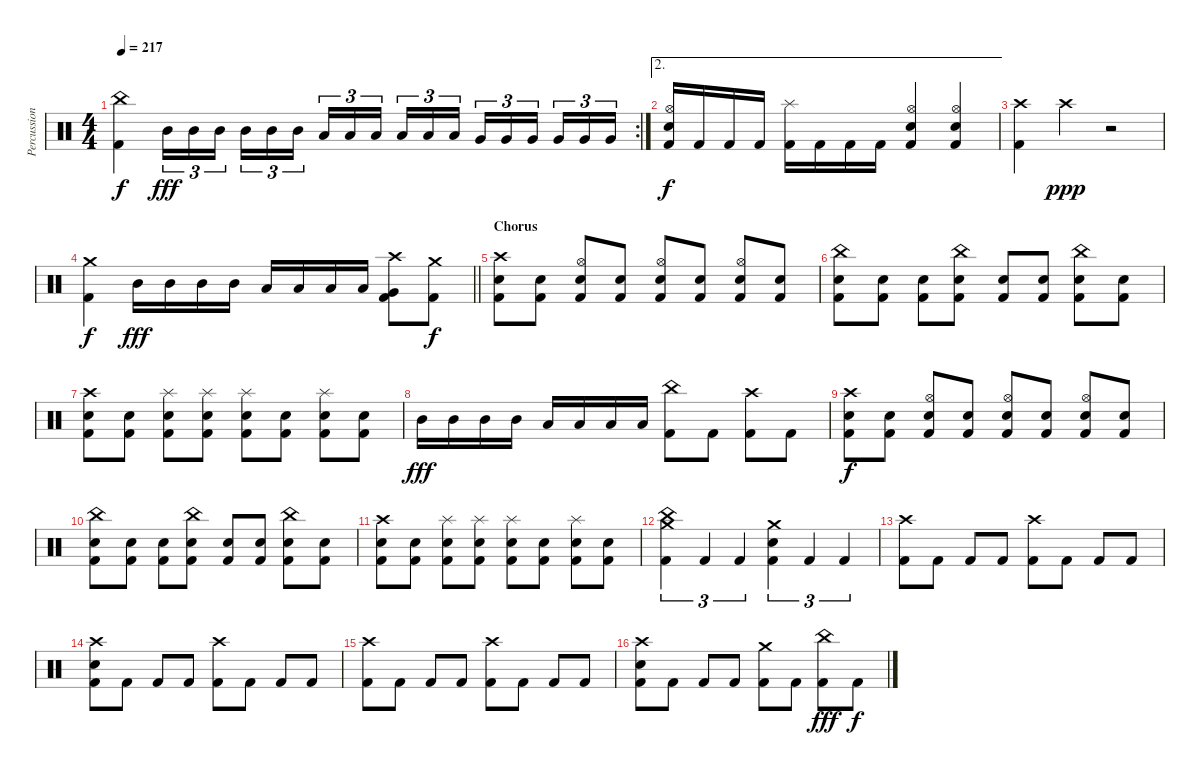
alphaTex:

\track ("Percussion" "Percussion") {instrument percussion}
\staff {score}
\articulation defaults
\rc 2
\ts (4 4)
\tempo 217
\clef neutral
\ks c
("China (hit)" "Kick (hit) 2").4{dy f} "Mid Tom (hit)".16{tu (3 2) dy fff} "Mid Tom (hit)".16{tu (3 2)} "Mid Tom (hit)".16{tu (3 2)} "Mid Tom (hit)".16{tu (3 2)} "Mid Tom (hit)".16{tu (3 2)} "Mid Tom (hit)".16{tu (3 2)} "Low Tom (hit)".16{tu (3 2)} "Low Tom (hit)".16{tu (3 2)} "Low Tom (hit)".16{tu (3 2)} "Low Tom (hit)".16{tu (3 2)} "Low Tom (hit)".16{tu (3 2)} "Low Tom (hit)".16{tu (3 2)} "Very Low Tom (hit)".16{tu (3 2)} "Very Low Tom (hit)".16{tu (3 2)} "Very Low Tom (hit)".16{tu (3 2)} "Very Low Tom (hit)".16{tu (3 2)} "Very Low Tom (hit)".16{tu (3 2)} "Very Low Tom (hit)".16{tu (3 2)} |
\ae 2
("Hi-Hat (open)" "Electric Snare (hit)" "Kick (hit) 2").16{dy f} "Kick (hit) 2".16 "Kick (hit) 2".16 "Kick (hit) 2".16 ("Splash (hit)" "Kick (hit) 2").16 "Kick (hit) 2".16 "Kick (hit) 2".16 "Kick (hit) 2".16 ("Hi-Hat (open)" "Electric Snare (hit)" "Kick (hit) 2").4 ("Hi-Hat (open)" "Electric Snare (hit)" "Kick (hit) 2").4 |
("Crash high (hit)" "Kick (hit) 2").4 "Crash high (hit)".4{dy ppp} r.2 |
\barLineRight lightlight
("Crash medium (hit)" "Kick (hit) 2").4{dy f} "Mid Tom (hit)".16{dy fff} "Mid Tom (hit)".16 "Mid Tom (hit)".16 "Mid Tom (hit)".16 "Low Tom (hit)".16 "Low Tom (hit)".16 "Low Tom (hit)".16 "Low Tom (hit)".16 ("Crash high (hit)" "Very Low Tom (hit)" "Kick (hit) 2").8 ("Crash medium (hit)" "Kick (hit) 2").8{dy f} |
\section ("" "Chorus")
("Crash high (hit)" "Electric Snare (hit)" "Kick (hit) 2").8 ("Electric Snare (hit)" "Kick (hit) 2").8 ("Hi-Hat (open)" "Electric Snare (hit)" "Kick (hit) 2").8 ("Electric Snare (hit)" "Kick (hit) 2").8 ("Hi-Hat (open)" "Electric Snare (hit)" "Kick (hit) 2").8 ("Electric Snare (hit)" "Kick (hit) 2").8 ("Hi-Hat (open)" "Electric Snare (hit)" "Kick (hit) 2").8 ("Electric Snare (hit)" "Kick (hit) 2").8 |
("China (hit)" "Electric Snare (hit)" "Kick (hit) 2").8 ("Electric Snare (hit)" "Kick (hit) 2").8 ("Electric Snare (hit)" "Kick (hit) 2").8 ("China (hit)" "Electric Snare (hit)" "Kick (hit) 2").8 ("Electric Snare (hit)" "Kick (hit) 2").8 ("Electric Snare (hit)" "Kick (hit) 2").8 ("China (hit)" "Electric Snare (hit)" "Kick (hit) 2").8 ("Electric Snare (hit)" "Kick (hit) 2").8 |
("Crash high (hit)" "Electric Snare (hit)" "Kick (hit) 2").8 ("Electric Snare (hit)" "Kick (hit) 2").8 ("Splash (hit)" "Electric Snare (hit)" "Kick (hit) 2").8 ("Splash (hit)" "Electric Snare (hit)" "Kick (hit) 2").8 ("Splash (hit)" "Electric Snare (hit)" "Kick (hit) 2").8 ("Electric Snare (hit)" "Kick (hit) 2").8 ("Splash (hit)" "Electric Snare (hit)" "Kick (hit) 2").8 ("Electric Snare (hit)" "Kick (hit) 2").8 |
"Mid Tom (hit)".16{dy fff} "Mid Tom (hit)".16 "Mid Tom (hit)".16 "Mid Tom (hit)".16 "Low Tom (hit)".16 "Low Tom (hit)".16 "Low Tom (hit)".16 "Low Tom (hit)".16 ("China (hit)" "Kick (hit) 2").8 "Kick (hit) 2".8 ("Crash high (hit)" "Kick (hit) 2").8 "Kick (hit) 2".8 |
("Crash high (hit)" "Electric Snare (hit)" "Kick (hit) 2").8{dy f} ("Electric Snare (hit)" "Kick (hit) 2").8 ("Hi-Hat (open)" "Electric Snare (hit)" "Kick (hit) 2").8 ("Electric Snare (hit)" "Kick (hit) 2").8 ("Hi-Hat (open)" "Electric Snare (hit)" "Kick (hit) 2").8 ("Electric Snare (hit)" "Kick (hit) 2").8 ("Hi-Hat (open)" "Electric Snare (hit)" "Kick (hit) 2").8 ("Electric Snare (hit)" "Kick (hit) 2").8 |
("China (hit)" "Electric Snare (hit)" "Kick (hit) 2").8 ("Electric Snare (hit)" "Kick (hit) 2").8 ("Electric Snare (hit)" "Kick (hit) 2").8 ("China (hit)" "Electric Snare (hit)" "Kick (hit) 2").8 ("Electric Snare (hit)" "Kick (hit) 2").8 ("Electric Snare (hit)" "Kick (hit) 2").8 ("China (hit)" "Electric Snare (hit)" "Kick (hit) 2").8 ("Electric Snare (hit)" "Kick (hit) 2").8 |
("Crash high (hit)" "Electric Snare (hit)" "Kick (hit) 2").8 ("Electric Snare (hit)" "Kick (hit) 2").8 ("Splash (hit)" "Electric Snare (hit)" "Kick (hit) 2").8 ("Splash (hit)" "Electric Snare (hit)" "Kick (hit) 2").8 ("Splash (hit)" "Electric Snare (hit)" "Kick (hit) 2").8 ("Electric Snare (hit)" "Kick (hit) 2").8 ("Splash (hit)" "Electric Snare (hit)" "Kick (hit) 2").8 ("Electric Snare (hit)" "Kick (hit) 2").8 |
("Crash medium (hit)" "China (hit)" "Kick (hit) 2").4{tu (3 2)} "Kick (hit) 2".4{tu (3 2)} "Kick (hit) 2".4{tu (3 2)} ("Crash medium (hit)" "Electric Snare (hit)" "Kick (hit) 2").4{tu (3 2)} "Kick (hit) 2".4{tu (3 2)} "Kick (hit) 2".4{tu (3 2)} |
("Crash high (hit)" "Kick (hit) 2").8 "Kick (hit) 2".8 "Kick (hit) 2".8 "Kick (hit) 2".8 ("Crash high (hit)" "Kick (hit) 2").8 "Kick (hit) 2".8 "Kick (hit) 2".8 "Kick (hit) 2".8 |
("Crash high (hit)" "Electric Snare (hit)" "Kick (hit) 2").8 "Kick (hit) 2".8 "Kick (hit) 2".8 "Kick (hit) 2".8 ("Crash high (hit)" "Kick (hit) 2").8 "Kick (hit) 2".8 "Kick (hit) 2".8 "Kick (hit) 2".8 |
("Crash high (hit)" "Kick (hit) 2").8 "Kick (hit) 2".8 "Kick (hit) 2".8 "Kick (hit) 2".8 ("Crash high (hit)" "Kick (hit) 2").8 "Kick (hit) 2".8 "Kick (hit) 2".8 "Kick (hit) 2".8 |
("Crash high (hit)" "Electric Snare (hit)" "Kick (hit) 2").8 "Kick (hit) 2".8 "Kick (hit) 2".8 "Kick (hit) 2".8 ("Crash medium (hit)" "Kick (hit) 2").8 "Kick (hit) 2".8 ("China (hit)" "Kick (hit) 2").8{dy fff} "Kick (hit) 2".8{dy f}
